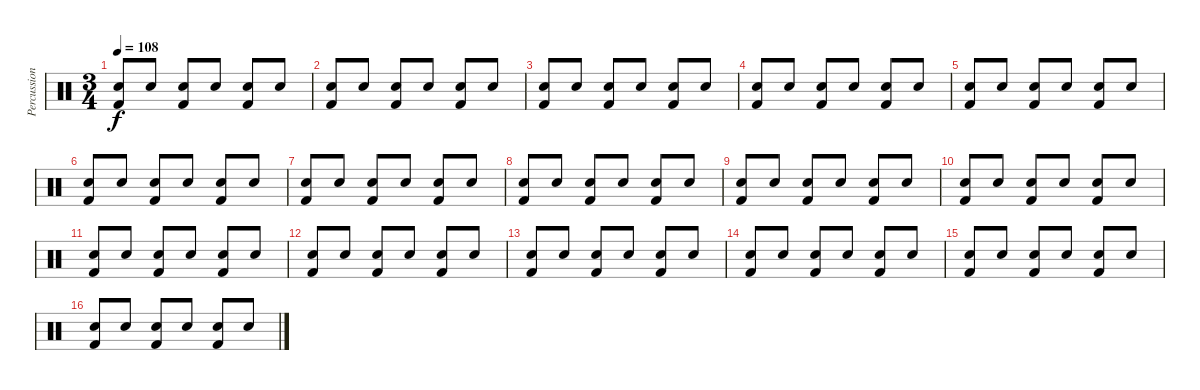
\track ("Percussion" "Percussion") {instrument percussion}
\staff {score}
\articulation defaults
\ts (3 4)
\tempo 108
\clef neutral
\ks c
("Snare (hit) 2" "Kick (hit) 2").8{dy f} "Snare (hit) 2".8 ("Snare (hit) 2" "Kick (hit) 2").8 "Snare (hit) 2".8 ("Snare (hit) 2" "Kick (hit) 2").8 "Snare (hit) 2".8 |
("Snare (hit) 2" "Kick (hit) 2").8 "Snare (hit) 2".8 ("Snare (hit) 2" "Kick (hit) 2").8 "Snare (hit) 2".8 ("Snare (hit) 2" "Kick (hit) 2").8 "Snare (hit) 2".8 |
("Snare (hit) 2" "Kick (hit) 2").8 "Snare (hit) 2".8 ("Snare (hit) 2" "Kick (hit) 2").8 "Snare (hit) 2".8 ("Snare (hit) 2" "Kick (hit) 2").8 "Snare (hit) 2".8 |
("Snare (hit) 2" "Kick (hit) 2").8 "Snare (hit) 2".8 ("Snare (hit) 2" "Kick (hit) 2").8 "Snare (hit) 2".8 ("Snare (hit) 2" "Kick (hit) 2").8 "Snare (hit) 2".8 |
("Snare (hit) 2" "Kick (hit) 2").8 "Snare (hit) 2".8 ("Snare (hit) 2" "Kick (hit) 2").8 "Snare (hit) 2".8 ("Snare (hit) 2" "Kick (hit) 2").8 "Snare (hit) 2".8 |
("Snare (hit) 2" "Kick (hit) 2").8 "Snare (hit) 2".8 ("Snare (hit) 2" "Kick (hit) 2").8 "Snare (hit) 2".8 ("Snare (hit) 2" "Kick (hit) 2").8 "Snare (hit) 2".8 |
("Snare (hit) 2" "Kick (hit) 2").8 "Snare (hit) 2".8 ("Snare (hit) 2" "Kick (hit) 2").8 "Snare (hit) 2".8 ("Snare (hit) 2" "Kick (hit) 2").8 "Snare (hit) 2".8 |
("Snare (hit) 2" "Kick (hit) 2").8 "Snare (hit) 2".8 ("Snare (hit) 2" "Kick (hit) 2").8 "Snare (hit) 2".8 ("Snare (hit) 2" "Kick (hit) 2").8 "Snare (hit) 2".8 |
("Snare (hit) 2" "Kick (hit) 2").8 "Snare (hit) 2".8 ("Snare (hit) 2" "Kick (hit) 2").8 "Snare (hit) 2".8 ("Snare (hit) 2" "Kick (hit) 2").8 "Snare (hit) 2".8 |
("Snare (hit) 2" "Kick (hit) 2").8 "Snare (hit) 2".8 ("Snare (hit) 2" "Kick (hit) 2").8 "Snare (hit) 2".8 ("Snare (hit) 2" "Kick (hit) 2").8 "Snare (hit) 2".8 |
("Snare (hit) 2" "Kick (hit) 2").8 "Snare (hit) 2".8 ("Snare (hit) 2" "Kick (hit) 2").8 "Snare (hit) 2".8 ("Snare (hit) 2" "Kick (hit) 2").8 "Snare (hit) 2".8 |
("Snare (hit) 2" "Kick (hit) 2").8 "Snare (hit) 2".8 ("Snare (hit) 2" "Kick (hit) 2").8 "Snare (hit) 2".8 ("Snare (hit) 2" "Kick (hit) 2").8 "Snare (hit) 2".8 |
("Snare (hit) 2" "Kick (hit) 2").8 "Snare (hit) 2".8 ("Snare (hit) 2" "Kick (hit) 2").8 "Snare (hit) 2".8 ("Snare (hit) 2" "Kick (hit) 2").8 "Snare (hit) 2".8 |
("Snare (hit) 2" "Kick (hit) 2").8 "Snare (hit) 2".8 ("Snare (hit) 2" "Kick (hit) 2").8 "Snare (hit) 2".8 ("Snare (hit) 2" "Kick (hit) 2").8 "Snare (hit) 2".8 |
("Snare (hit) 2" "Kick (hit) 2").8 "Snare (hit) 2".8 ("Snare (hit) 2" "Kick (hit) 2").8 "Snare (hit) 2".8 ("Snare (hit) 2" "Kick (hit) 2").8 "Snare (hit) 2".8 |
("Snare (hit) 2" "Kick (hit) 2").8 "Snare (hit) 2".8 ("Snare (hit) 2" "Kick (hit) 2").8 "Snare (hit) 2".8 ("Snare (hit) 2" "Kick (hit) 2").8 "Snare (hit) 2".8
